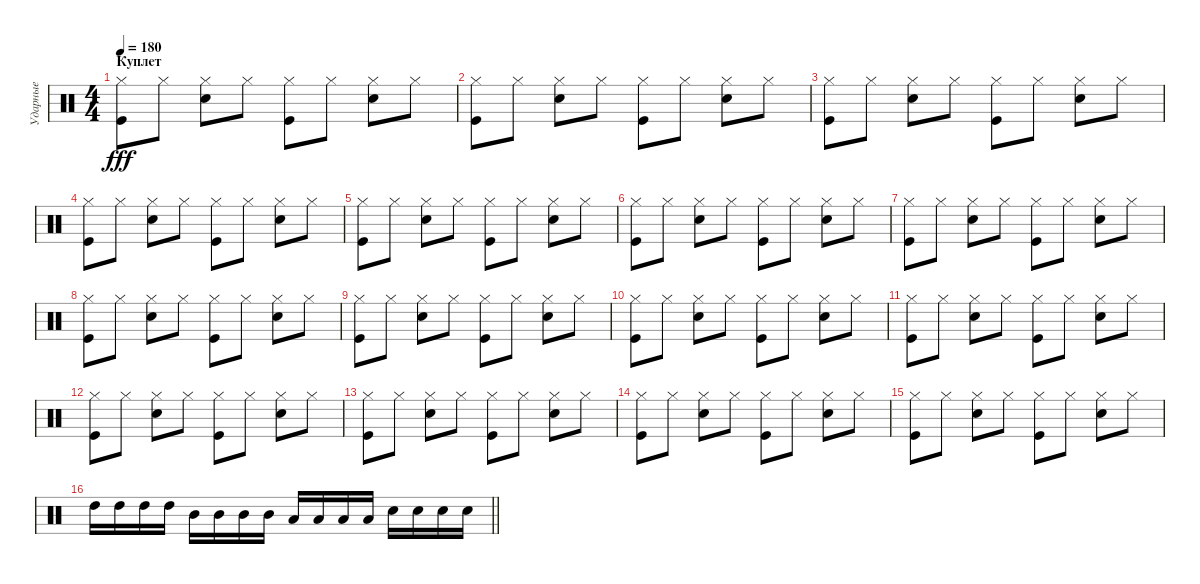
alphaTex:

\track ("Ударные" "Ударные") {instrument percussion}
\staff {score}
\articulation defaults
\ts (4 4)
\section ("" "Куплет")
\tempo 180
\clef neutral
\ks c
("Hi-Hat (closed)" "Kick (hit)").8{dy fff} "Hi-Hat (closed)".8 ("Hi-Hat (closed)" "Electric Snare (hit)").8 "Hi-Hat (closed)".8 ("Hi-Hat (closed)" "Kick (hit)").8 "Hi-Hat (closed)".8 ("Hi-Hat (closed)" "Electric Snare (hit)").8 "Hi-Hat (closed)".8 |
("Hi-Hat (closed)" "Kick (hit)").8 "Hi-Hat (closed)".8 ("Hi-Hat (closed)" "Electric Snare (hit)").8 "Hi-Hat (closed)".8 ("Hi-Hat (closed)" "Kick (hit)").8 "Hi-Hat (closed)".8 ("Hi-Hat (closed)" "Electric Snare (hit)").8 "Hi-Hat (closed)".8 |
("Hi-Hat (closed)" "Kick (hit)").8 "Hi-Hat (closed)".8 ("Hi-Hat (closed)" "Electric Snare (hit)").8 "Hi-Hat (closed)".8 ("Hi-Hat (closed)" "Kick (hit)").8 "Hi-Hat (closed)".8 ("Hi-Hat (closed)" "Electric Snare (hit)").8 "Hi-Hat (closed)".8 |
("Hi-Hat (closed)" "Kick (hit)").8 "Hi-Hat (closed)".8 ("Hi-Hat (closed)" "Electric Snare (hit)").8 "Hi-Hat (closed)".8 ("Hi-Hat (closed)" "Kick (hit)").8 "Hi-Hat (closed)".8 ("Hi-Hat (closed)" "Electric Snare (hit)").8 "Hi-Hat (closed)".8 |
("Hi-Hat (closed)" "Kick (hit)").8 "Hi-Hat (closed)".8 ("Hi-Hat (closed)" "Electric Snare (hit)").8 "Hi-Hat (closed)".8 ("Hi-Hat (closed)" "Kick (hit)").8 "Hi-Hat (closed)".8 ("Hi-Hat (closed)" "Electric Snare (hit)").8 "Hi-Hat (closed)".8 |
("Hi-Hat (closed)" "Kick (hit)").8 "Hi-Hat (closed)".8 ("Hi-Hat (closed)" "Electric Snare (hit)").8 "Hi-Hat (closed)".8 ("Hi-Hat (closed)" "Kick (hit)").8 "Hi-Hat (closed)".8 ("Hi-Hat (closed)" "Electric Snare (hit)").8 "Hi-Hat (closed)".8 |
("Hi-Hat (closed)" "Kick (hit)").8 "Hi-Hat (closed)".8 ("Hi-Hat (closed)" "Electric Snare (hit)").8 "Hi-Hat (closed)".8 ("Hi-Hat (closed)" "Kick (hit)").8 "Hi-Hat (closed)".8 ("Hi-Hat (closed)" "Electric Snare (hit)").8 "Hi-Hat (closed)".8 |
("Hi-Hat (closed)" "Kick (hit)").8 "Hi-Hat (closed)".8 ("Hi-Hat (closed)" "Electric Snare (hit)").8 "Hi-Hat (closed)".8 ("Hi-Hat (closed)" "Kick (hit)").8 "Hi-Hat (closed)".8 ("Hi-Hat (closed)" "Electric Snare (hit)").8 "Hi-Hat (closed)".8 |
("Hi-Hat (closed)" "Kick (hit)").8 "Hi-Hat (closed)".8 ("Hi-Hat (closed)" "Electric Snare (hit)").8 "Hi-Hat (closed)".8 ("Hi-Hat (closed)" "Kick (hit)").8 "Hi-Hat (closed)".8 ("Hi-Hat (closed)" "Electric Snare (hit)").8 "Hi-Hat (closed)".8 |
("Hi-Hat (closed)" "Kick (hit)").8 "Hi-Hat (closed)".8 ("Hi-Hat (closed)" "Electric Snare (hit)").8 "Hi-Hat (closed)".8 ("Hi-Hat (closed)" "Kick (hit)").8 "Hi-Hat (closed)".8 ("Hi-Hat (closed)" "Electric Snare (hit)").8 "Hi-Hat (closed)".8 |
("Hi-Hat (closed)" "Kick (hit)").8 "Hi-Hat (closed)".8 ("Hi-Hat (closed)" "Electric Snare (hit)").8 "Hi-Hat (closed)".8 ("Hi-Hat (closed)" "Kick (hit)").8 "Hi-Hat (closed)".8 ("Hi-Hat (closed)" "Electric Snare (hit)").8 "Hi-Hat (closed)".8 |
("Hi-Hat (closed)" "Kick (hit)").8 "Hi-Hat (closed)".8 ("Hi-Hat (closed)" "Electric Snare (hit)").8 "Hi-Hat (closed)".8 ("Hi-Hat (closed)" "Kick (hit)").8 "Hi-Hat (closed)".8 ("Hi-Hat (closed)" "Electric Snare (hit)").8 "Hi-Hat (closed)".8 |
("Hi-Hat (closed)" "Kick (hit)").8 "Hi-Hat (closed)".8 ("Hi-Hat (closed)" "Electric Snare (hit)").8 "Hi-Hat (closed)".8 ("Hi-Hat (closed)" "Kick (hit)").8 "Hi-Hat (closed)".8 ("Hi-Hat (closed)" "Electric Snare (hit)").8 "Hi-Hat (closed)".8 |
("Hi-Hat (closed)" "Kick (hit)").8 "Hi-Hat (closed)".8 ("Hi-Hat (closed)" "Electric Snare (hit)").8 "Hi-Hat (closed)".8 ("Hi-Hat (closed)" "Kick (hit)").8 "Hi-Hat (closed)".8 ("Hi-Hat (closed)" "Electric Snare (hit)").8 "Hi-Hat (closed)".8 |
("Hi-Hat (closed)" "Kick (hit)").8 "Hi-Hat (closed)".8 ("Hi-Hat (closed)" "Electric Snare (hit)").8 "Hi-Hat (closed)".8 ("Hi-Hat (closed)" "Kick (hit)").8 "Hi-Hat (closed)".8 ("Hi-Hat (closed)" "Electric Snare (hit)").8 "Hi-Hat (closed)".8 |
\barLineRight lightlight "High Tom (hit)".16 "High Tom (hit)".16 "High Tom (hit)".16 "High Tom (hit)".16 "Mid Tom (hit)".16 "Mid Tom (hit)".16 "Mid Tom (hit)".16 "Mid Tom (hit)".16 "Low Tom (hit)".16 "Low Tom (hit)".16 "Low Tom (hit)".16 "Low Tom (hit)".16 "Electric Snare (hit)".16 "Electric Snare (hit)".16 "Electric Snare (hit)".16 "Electric Snare (hit)".16
